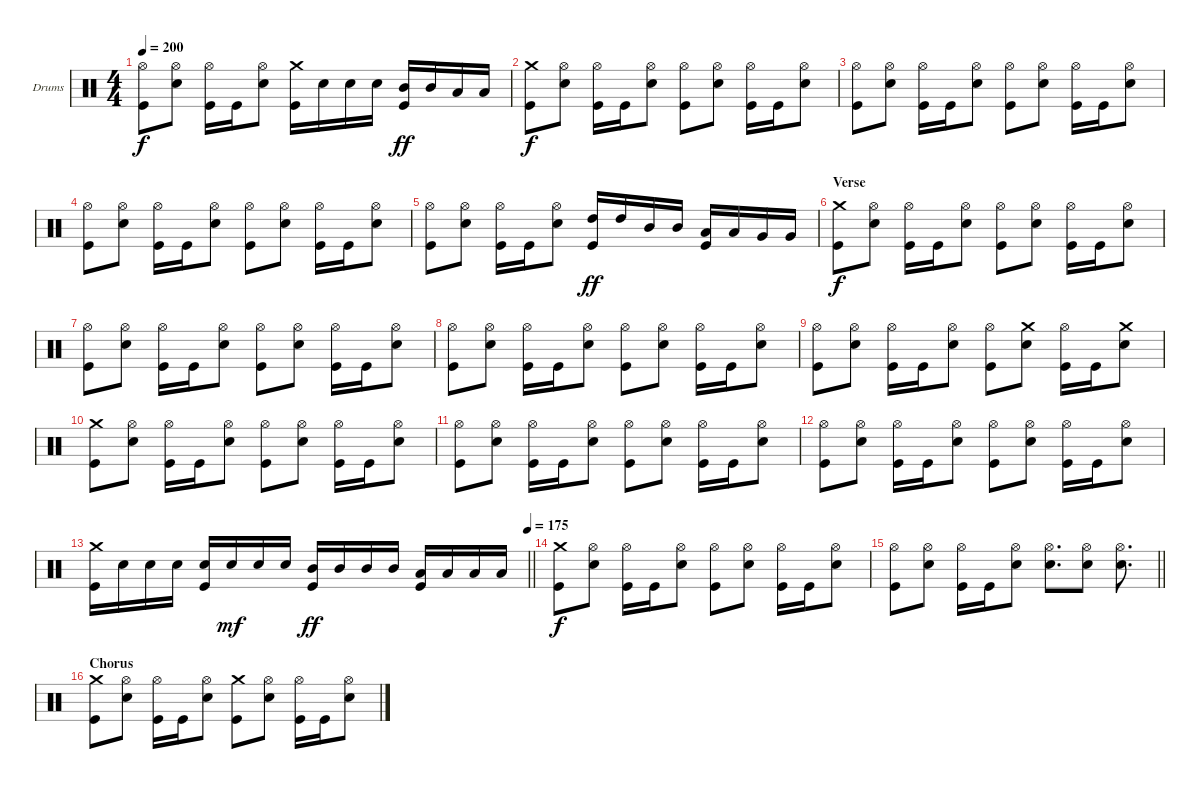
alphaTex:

\bracketExtendMode groupsimilarinstruments
\firstSystemTrackNameOrientation horizontal
\otherSystemsTrackNameOrientation horizontal
\track ("Drums" "Drums") {instrument percussion}
\staff {score}
\articulation defaults
\ts (4 4)
\tempo 200
\clef neutral
\ks c
("Hi-Hat (open)" "Kick (hit)").8{dy f} ("Hi-Hat (open)" "Snare (hit) 2").8 ("Hi-Hat (open)" "Kick (hit)").16 "Kick (hit)".16 ("Hi-Hat (open)" "Snare (hit) 2").8 ("Crash medium (hit)" "Kick (hit)").16 "Snare (hit) 2".16 "Snare (hit) 2".16 "Snare (hit) 2".16 ("Mid Tom (hit)" "Kick (hit)").16{dy ff} "Mid Tom (hit)".16 "Low Tom (hit)".16 "Low Tom (hit)".16 |
("Crash medium (hit)" "Kick (hit)").8{dy f} ("Hi-Hat (open)" "Snare (hit) 2").8 ("Hi-Hat (open)" "Kick (hit)").16 "Kick (hit)".16 ("Hi-Hat (open)" "Snare (hit) 2").8 ("Hi-Hat (open)" "Kick (hit)").8 ("Hi-Hat (open)" "Snare (hit) 2").8 ("Hi-Hat (open)" "Kick (hit)").16 "Kick (hit)".16 ("Hi-Hat (open)" "Snare (hit) 2").8 |
("Hi-Hat (open)" "Kick (hit)").8 ("Hi-Hat (open)" "Snare (hit) 2").8 ("Hi-Hat (open)" "Kick (hit)").16 "Kick (hit)".16 ("Hi-Hat (open)" "Snare (hit) 2").8 ("Hi-Hat (open)" "Kick (hit)").8 ("Hi-Hat (open)" "Snare (hit) 2").8 ("Hi-Hat (open)" "Kick (hit)").16 "Kick (hit)".16 ("Hi-Hat (open)" "Snare (hit) 2").8 |
("Hi-Hat (open)" "Kick (hit)").8 ("Hi-Hat (open)" "Snare (hit) 2").8 ("Hi-Hat (open)" "Kick (hit)").16 "Kick (hit)".16 ("Hi-Hat (open)" "Snare (hit) 2").8 ("Hi-Hat (open)" "Kick (hit)").8 ("Hi-Hat (open)" "Snare (hit) 2").8 ("Hi-Hat (open)" "Kick (hit)").16 "Kick (hit)".16 ("Hi-Hat (open)" "Snare (hit) 2").8 |
("Hi-Hat (open)" "Kick (hit)").8 ("Hi-Hat (open)" "Snare (hit) 2").8 ("Hi-Hat (open)" "Kick (hit)").16 "Kick (hit)".16 ("Hi-Hat (open)" "Snare (hit) 2").8 ("Kick (hit)" "High Tom (hit)").16{dy ff} "High Tom (hit)".16 "Mid Tom (hit)".16 "Mid Tom (hit)".16 ("Low Tom (hit)" "Kick (hit)").16 "Low Tom (hit)".16 "Very Low Tom (hit)".16 "Very Low Tom (hit)".16 |
\section ("" "Verse")
("Crash medium (hit)" "Kick (hit)").8{dy f} ("Hi-Hat (open)" "Snare (hit) 2").8 ("Hi-Hat (open)" "Kick (hit)").16 "Kick (hit)".16 ("Hi-Hat (open)" "Snare (hit) 2").8 ("Hi-Hat (open)" "Kick (hit)").8 ("Hi-Hat (open)" "Snare (hit) 2").8 ("Hi-Hat (open)" "Kick (hit)").16 "Kick (hit)".16 ("Hi-Hat (open)" "Snare (hit) 2").8 |
("Hi-Hat (open)" "Kick (hit)").8 ("Hi-Hat (open)" "Snare (hit) 2").8 ("Hi-Hat (open)" "Kick (hit)").16 "Kick (hit)".16 ("Hi-Hat (open)" "Snare (hit) 2").8 ("Hi-Hat (open)" "Kick (hit)").8 ("Hi-Hat (open)" "Snare (hit) 2").8 ("Hi-Hat (open)" "Kick (hit)").16 "Kick (hit)".16 ("Hi-Hat (open)" "Snare (hit) 2").8 |
("Hi-Hat (open)" "Kick (hit)").8 ("Hi-Hat (open)" "Snare (hit) 2").8 ("Hi-Hat (open)" "Kick (hit)").16 "Kick (hit)".16 ("Hi-Hat (open)" "Snare (hit) 2").8 ("Hi-Hat (open)" "Kick (hit)").8 ("Hi-Hat (open)" "Snare (hit) 2").8 ("Hi-Hat (open)" "Kick (hit)").16 "Kick (hit)".16 ("Hi-Hat (open)" "Snare (hit) 2").8 |
("Hi-Hat (open)" "Kick (hit)").8 ("Hi-Hat (open)" "Snare (hit) 2").8 ("Hi-Hat (open)" "Kick (hit)").16 "Kick (hit)".16 ("Hi-Hat (open)" "Snare (hit) 2").8 ("Hi-Hat (open)" "Kick (hit)").8 ("Snare (hit) 2" "Crash medium (hit)").8 ("Hi-Hat (open)" "Kick (hit)").16 "Kick (hit)".16 ("Snare (hit) 2" "Crash medium (hit)").8 |
("Crash medium (hit)" "Kick (hit)").8 ("Hi-Hat (open)" "Snare (hit) 2").8 ("Hi-Hat (open)" "Kick (hit)").16 "Kick (hit)".16 ("Hi-Hat (open)" "Snare (hit) 2").8 ("Hi-Hat (open)" "Kick (hit)").8 ("Hi-Hat (open)" "Snare (hit) 2").8 ("Hi-Hat (open)" "Kick (hit)").16 "Kick (hit)".16 ("Hi-Hat (open)" "Snare (hit) 2").8 |
("Hi-Hat (open)" "Kick (hit)").8 ("Hi-Hat (open)" "Snare (hit) 2").8 ("Hi-Hat (open)" "Kick (hit)").16 "Kick (hit)".16 ("Hi-Hat (open)" "Snare (hit) 2").8 ("Hi-Hat (open)" "Kick (hit)").8 ("Hi-Hat (open)" "Snare (hit) 2").8 ("Hi-Hat (open)" "Kick (hit)").16 "Kick (hit)".16 ("Hi-Hat (open)" "Snare (hit) 2").8 |
("Hi-Hat (open)" "Kick (hit)").8 ("Hi-Hat (open)" "Snare (hit) 2").8 ("Hi-Hat (open)" "Kick (hit)").16 "Kick (hit)".16 ("Hi-Hat (open)" "Snare (hit) 2").8 ("Hi-Hat (open)" "Kick (hit)").8 ("Hi-Hat (open)" "Snare (hit) 2").8 ("Hi-Hat (open)" "Kick (hit)").16 "Kick (hit)".16 ("Hi-Hat (open)" "Snare (hit) 2").8 |
\tempo (175 1)
\barLineRight lightlight
("Kick (hit)" "Crash medium (hit)").16 "Snare (hit) 2".16 "Snare (hit) 2".16 "Snare (hit) 2".16 ("Snare (hit) 2" "Kick (hit)").16 "Snare (hit) 2".16{dy mf} "Snare (hit) 2".16 "Snare (hit) 2".16 ("Mid Tom (hit)" "Kick (hit)").16{dy ff} "Mid Tom (hit)".16 "Mid Tom (hit)".16 "Mid Tom (hit)".16 ("Low Tom (hit)" "Kick (hit)").16 "Low Tom (hit)".16 "Low Tom (hit)".16 "Low Tom (hit)".16 |
("Crash medium (hit)" "Kick (hit)").8{dy f} ("Hi-Hat (open)" "Snare (hit) 2").8 ("Hi-Hat (open)" "Kick (hit)").16 "Kick (hit)".16 ("Hi-Hat (open)" "Snare (hit) 2").8 ("Hi-Hat (open)" "Kick (hit)").8 ("Hi-Hat (open)" "Snare (hit) 2").8 ("Hi-Hat (open)" "Kick (hit)").16 "Kick (hit)".16 ("Hi-Hat (open)" "Snare (hit) 2").8 |
\barLineRight lightlight
("Hi-Hat (open)" "Kick (hit)").8 ("Hi-Hat (open)" "Snare (hit) 2").8 ("Hi-Hat (open)" "Kick (hit)").16 "Kick (hit)".16 ("Hi-Hat (open)" "Snare (hit) 2").8 ("Snare (hit) 2" "Hi-Hat (open)").8{d} ("Hi-Hat (open)" "Snare (hit) 2").8 ("Hi-Hat (open)" "Snare (hit) 2").8{d} |
\section ("" "Chorus")
("Crash medium (hit)" "Kick (hit)").8 ("Hi-Hat (open)" "Snare (hit) 2").8 ("Hi-Hat (open)" "Kick (hit)").16 "Kick (hit)".16 ("Hi-Hat (open)" "Snare (hit) 2").8 ("Kick (hit)" "Crash medium (hit)").8 ("Hi-Hat (open)" "Snare (hit) 2").8 ("Hi-Hat (open)" "Kick (hit)").16 "Kick (hit)".16 ("Hi-Hat (open)" "Snare (hit) 2").8
